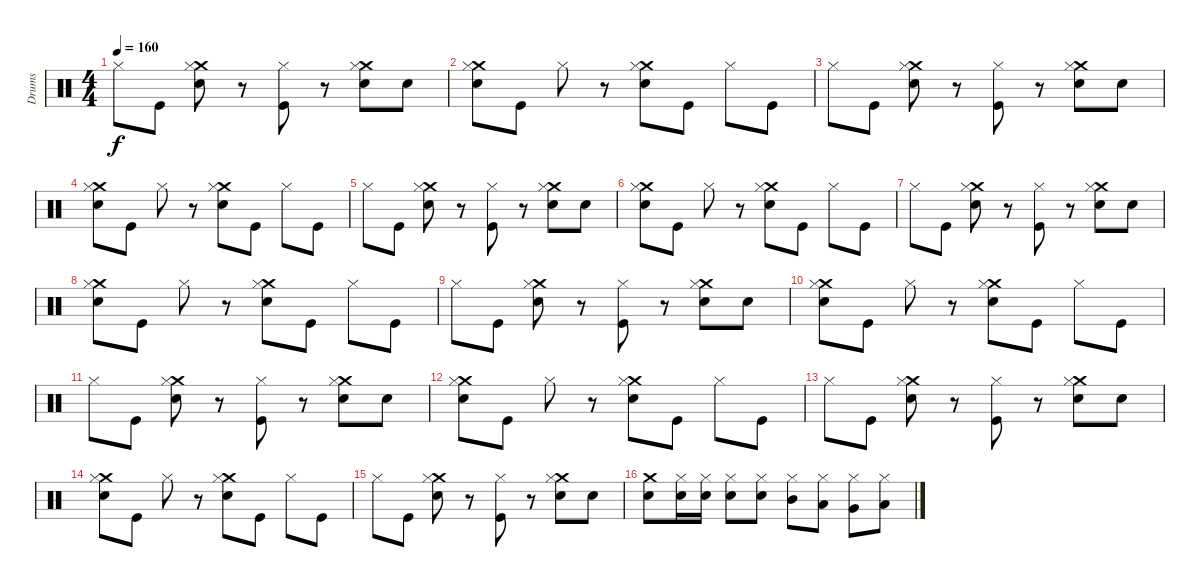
\track ("Drums" "Drums") {instrument percussion}
\staff {score}
\articulation defaults
\ts (4 4)
\tempo 160
\clef neutral
\ks c "Hi-Hat (closed)".8{dy f} "Kick (hit)".8
("Crash medium (hit)" "Hi-Hat (closed)" "Electric Snare (hit)").8 r.8 ("Hi-Hat (closed)" "Kick (hit)").8 r.8 ("Crash medium (hit)" "Hi-Hat (closed)" "Electric Snare (hit)").8 "Snare (hit)".8 |
("Crash medium (hit)" "Hi-Hat (closed)" "Electric Snare (hit)").8 "Kick (hit)".8 "Hi-Hat (closed)".8 r.8 ("Crash medium (hit)" "Hi-Hat (closed)" "Electric Snare (hit)").8 "Kick (hit)".8 "Hi-Hat (closed)".8 "Kick (hit)".8 |
"Hi-Hat (closed)".8 "Kick (hit)".8 ("Crash medium (hit)" "Hi-Hat (closed)" "Electric Snare (hit)").8 r.8 ("Hi-Hat (closed)" "Kick (hit)").8 r.8 ("Crash medium (hit)" "Hi-Hat (closed)" "Electric Snare (hit)").8 "Snare (hit)".8 |
("Crash medium (hit)" "Hi-Hat (closed)" "Electric Snare (hit)").8 "Kick (hit)".8 "Hi-Hat (closed)".8 r.8 ("Crash medium (hit)" "Hi-Hat (closed)" "Electric Snare (hit)").8 "Kick (hit)".8 "Hi-Hat (closed)".8 "Kick (hit)".8 |
"Hi-Hat (closed)".8 "Kick (hit)".8 ("Crash medium (hit)" "Hi-Hat (closed)" "Electric Snare (hit)").8 r.8 ("Hi-Hat (closed)" "Kick (hit)").8 r.8 ("Crash medium (hit)" "Hi-Hat (closed)" "Electric Snare (hit)").8 "Snare (hit)".8 |
("Crash medium (hit)" "Hi-Hat (closed)" "Electric Snare (hit)").8 "Kick (hit)".8 "Hi-Hat (closed)".8 r.8 ("Crash medium (hit)" "Hi-Hat (closed)" "Electric Snare (hit)").8 "Kick (hit)".8 "Hi-Hat (closed)".8 "Kick (hit)".8 |
"Hi-Hat (closed)".8 "Kick (hit)".8 ("Crash medium (hit)" "Hi-Hat (closed)" "Electric Snare (hit)").8 r.8 ("Hi-Hat (closed)" "Kick (hit)").8 r.8 ("Crash medium (hit)" "Hi-Hat (closed)" "Electric Snare (hit)").8 "Snare (hit)".8 |
("Crash medium (hit)" "Hi-Hat (closed)" "Electric Snare (hit)").8 "Kick (hit)".8 "Hi-Hat (closed)".8 r.8 ("Crash medium (hit)" "Hi-Hat (closed)" "Electric Snare (hit)").8 "Kick (hit)".8 "Hi-Hat (closed)".8 "Kick (hit)".8 |
"Hi-Hat (closed)".8 "Kick (hit)".8 ("Crash medium (hit)" "Hi-Hat (closed)" "Electric Snare (hit)").8 r.8 ("Hi-Hat (closed)" "Kick (hit)").8 r.8 ("Crash medium (hit)" "Hi-Hat (closed)" "Electric Snare (hit)").8 "Snare (hit)".8 |
("Crash medium (hit)" "Hi-Hat (closed)" "Electric Snare (hit)").8 "Kick (hit)".8 "Hi-Hat (closed)".8 r.8 ("Crash medium (hit)" "Hi-Hat (closed)" "Electric Snare (hit)").8 "Kick (hit)".8 "Hi-Hat (closed)".8 "Kick (hit)".8 |
"Hi-Hat (closed)".8 "Kick (hit)".8 ("Crash medium (hit)" "Hi-Hat (closed)" "Electric Snare (hit)").8 r.8 ("Hi-Hat (closed)" "Kick (hit)").8 r.8 ("Crash medium (hit)" "Hi-Hat (closed)" "Electric Snare (hit)").8 "Snare (hit)".8 |
("Crash medium (hit)" "Hi-Hat (closed)" "Electric Snare (hit)").8 "Kick (hit)".8 "Hi-Hat (closed)".8 r.8 ("Crash medium (hit)" "Hi-Hat (closed)" "Electric Snare (hit)").8 "Kick (hit)".8 "Hi-Hat (closed)".8 "Kick (hit)".8 |
"Hi-Hat (closed)".8 "Kick (hit)".8 ("Crash medium (hit)" "Hi-Hat (closed)" "Electric Snare (hit)").8 r.8 ("Hi-Hat (closed)" "Kick (hit)").8 r.8 ("Crash medium (hit)" "Hi-Hat (closed)" "Electric Snare (hit)").8 "Snare (hit)".8 |
("Crash medium (hit)" "Hi-Hat (closed)" "Electric Snare (hit)").8 "Kick (hit)".8 "Hi-Hat (closed)".8 r.8 ("Crash medium (hit)" "Hi-Hat (closed)" "Electric Snare (hit)").8 "Kick (hit)".8 "Hi-Hat (closed)".8 "Kick (hit)".8 |
"Hi-Hat (closed)".8 "Kick (hit)".8 ("Crash medium (hit)" "Hi-Hat (closed)" "Electric Snare (hit)").8 r.8 ("Hi-Hat (closed)" "Kick (hit)").8 r.8 ("Crash medium (hit)" "Hi-Hat (closed)" "Electric Snare (hit)").8 "Snare (hit)".8 |
("Crash medium (hit)" "Electric Snare (hit)").8 ("Hi-Hat (closed)" "Electric Snare (hit)").16 ("Hi-Hat (closed)" "Electric Snare (hit)").16 ("Hi-Hat (closed)" "Electric Snare (hit)").8 ("Hi-Hat (closed)" "Electric Snare (hit)").8 ("Hi-Hat (closed)" "Mid Tom (hit)").8 ("Hi-Hat (closed)" "Low Tom (hit)").8 ("Hi-Hat (closed)" "Very Low Tom (hit)").8 ("Hi-Hat (closed)" "Low Floor Tom (hit)").8
